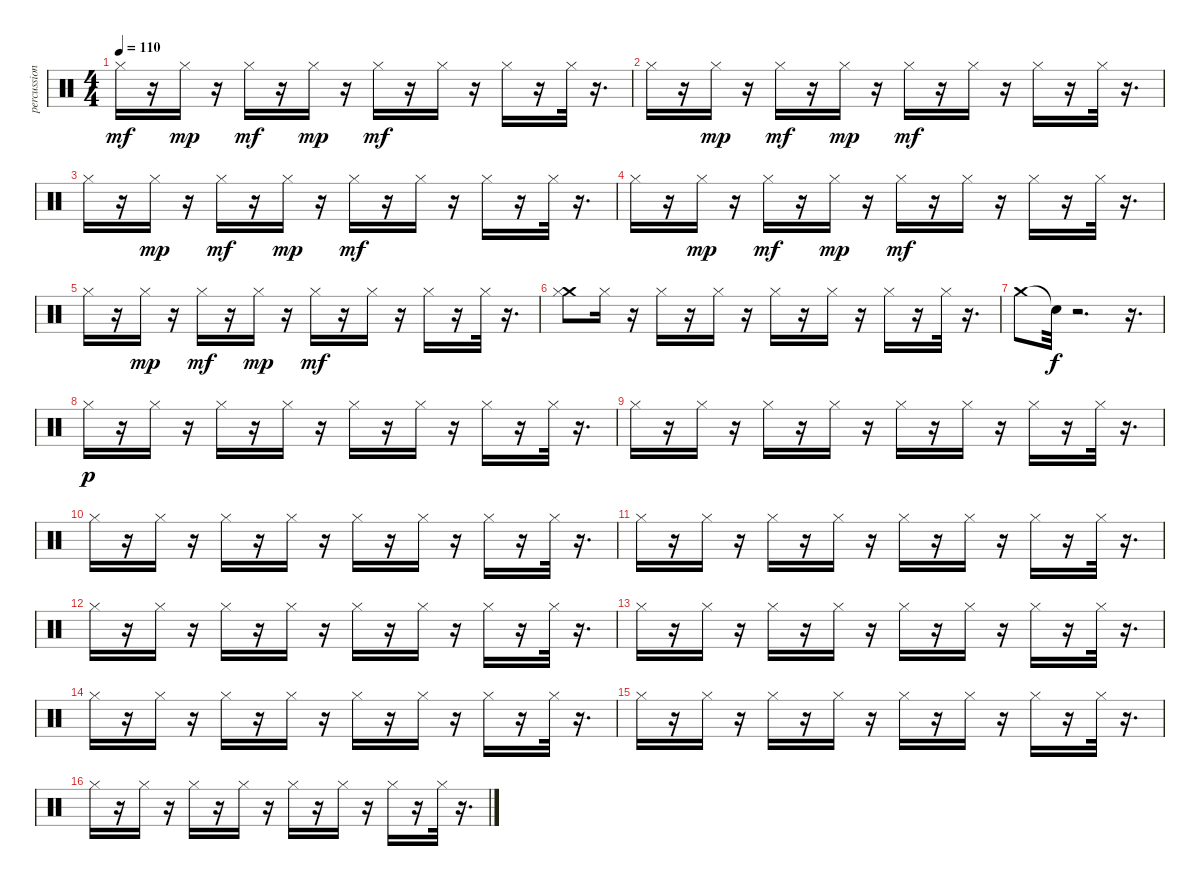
\track ("percussions 2" "percussion") {instrument percussion}
\staff {score}
\articulation defaults
\ts (4 4)
\tempo 110
\clef neutral
\ks c "Hi-Hat (closed)".16{dy mf}
r.16 "Hi-Hat (closed)".16{dy mp} r.16 "Hi-Hat (closed)".16{dy mf} r.16 "Hi-Hat (closed)".16{dy mp} r.16 "Hi-Hat (closed)".16{dy mf} r.16 "Hi-Hat (closed)".16 r.16 "Hi-Hat (closed)".16 r.16 "Hi-Hat (closed)".32 r.16{d} |
"Hi-Hat (closed)".16 r.16 "Hi-Hat (closed)".16{dy mp} r.16 "Hi-Hat (closed)".16{dy mf} r.16 "Hi-Hat (closed)".16{dy mp} r.16 "Hi-Hat (closed)".16{dy mf} r.16 "Hi-Hat (closed)".16 r.16 "Hi-Hat (closed)".16 r.16 "Hi-Hat (closed)".32 r.16{d} |
"Hi-Hat (closed)".16 r.16 "Hi-Hat (closed)".16{dy mp} r.16 "Hi-Hat (closed)".16{dy mf} r.16 "Hi-Hat (closed)".16{dy mp} r.16 "Hi-Hat (closed)".16{dy mf} r.16 "Hi-Hat (closed)".16 r.16 "Hi-Hat (closed)".16 r.16 "Hi-Hat (closed)".32 r.16{d} |
"Hi-Hat (closed)".16 r.16 "Hi-Hat (closed)".16{dy mp} r.16 "Hi-Hat (closed)".16{dy mf} r.16 "Hi-Hat (closed)".16{dy mp} r.16 "Hi-Hat (closed)".16{dy mf} r.16 "Hi-Hat (closed)".16 r.16 "Hi-Hat (closed)".16 r.16 "Hi-Hat (closed)".32 r.16{d} |
"Hi-Hat (closed)".16 r.16 "Hi-Hat (closed)".16{dy mp} r.16 "Hi-Hat (closed)".16{dy mf} r.16 "Hi-Hat (closed)".16{dy mp} r.16 "Hi-Hat (closed)".16{dy mf} r.16 "Hi-Hat (closed)".16 r.16 "Hi-Hat (closed)".16 r.16 "Hi-Hat (closed)".32 r.16{d} |
("Crash medium (hit)" "Hi-Hat (closed)").8 "Hi-Hat (closed)".16 r.16 "Hi-Hat (closed)".16 r.16 "Hi-Hat (closed)".16 r.16 "Hi-Hat (closed)".16 r.16 "Hi-Hat (closed)".16 r.16 "Hi-Hat (closed)".16 r.16 "Hi-Hat (closed)".32 r.16{d} |
"Crash medium (hit)".8 "Snare (hit)"{t}.32{dy f} r.2{d} r.16{d} |
"Hi-Hat (closed)".16{dy p} r.16 "Hi-Hat (closed)".16 r.16 "Hi-Hat (closed)".16 r.16 "Hi-Hat (closed)".16 r.16 "Hi-Hat (closed)".16 r.16 "Hi-Hat (closed)".16 r.16 "Hi-Hat (closed)".16 r.16 "Hi-Hat (closed)".32 r.16{d} |
"Hi-Hat (closed)".16 r.16 "Hi-Hat (closed)".16 r.16 "Hi-Hat (closed)".16 r.16 "Hi-Hat (closed)".16 r.16 "Hi-Hat (closed)".16 r.16 "Hi-Hat (closed)".16 r.16 "Hi-Hat (closed)".16 r.16 "Hi-Hat (closed)".32 r.16{d} |
"Hi-Hat (closed)".16 r.16 "Hi-Hat (closed)".16 r.16 "Hi-Hat (closed)".16 r.16 "Hi-Hat (closed)".16 r.16 "Hi-Hat (closed)".16 r.16 "Hi-Hat (closed)".16 r.16 "Hi-Hat (closed)".16 r.16 "Hi-Hat (closed)".32 r.16{d} |
"Hi-Hat (closed)".16 r.16 "Hi-Hat (closed)".16 r.16 "Hi-Hat (closed)".16 r.16 "Hi-Hat (closed)".16 r.16 "Hi-Hat (closed)".16 r.16 "Hi-Hat (closed)".16 r.16 "Hi-Hat (closed)".16 r.16 "Hi-Hat (closed)".32 r.16{d} |
"Hi-Hat (closed)".16 r.16 "Hi-Hat (closed)".16 r.16 "Hi-Hat (closed)".16 r.16 "Hi-Hat (closed)".16 r.16 "Hi-Hat (closed)".16 r.16 "Hi-Hat (closed)".16 r.16 "Hi-Hat (closed)".16 r.16 "Hi-Hat (closed)".32 r.16{d} |
"Hi-Hat (closed)".16 r.16 "Hi-Hat (closed)".16 r.16 "Hi-Hat (closed)".16 r.16 "Hi-Hat (closed)".16 r.16 "Hi-Hat (closed)".16 r.16 "Hi-Hat (closed)".16 r.16 "Hi-Hat (closed)".16 r.16 "Hi-Hat (closed)".32 r.16{d} |
"Hi-Hat (closed)".16 r.16 "Hi-Hat (closed)".16 r.16 "Hi-Hat (closed)".16 r.16 "Hi-Hat (closed)".16 r.16 "Hi-Hat (closed)".16 r.16 "Hi-Hat (closed)".16 r.16 "Hi-Hat (closed)".16 r.16 "Hi-Hat (closed)".32 r.16{d} |
"Hi-Hat (closed)".16 r.16 "Hi-Hat (closed)".16 r.16 "Hi-Hat (closed)".16 r.16 "Hi-Hat (closed)".16 r.16 "Hi-Hat (closed)".16 r.16 "Hi-Hat (closed)".16 r.16 "Hi-Hat (closed)".16 r.16 "Hi-Hat (closed)".32 r.16{d} |
"Hi-Hat (closed)".16 r.16 "Hi-Hat (closed)".16 r.16 "Hi-Hat (closed)".16 r.16 "Hi-Hat (closed)".16 r.16 "Hi-Hat (closed)".16 r.16 "Hi-Hat (closed)".16 r.16 "Hi-Hat (closed)".16 r.16 "Hi-Hat (closed)".32 r.16{d}
